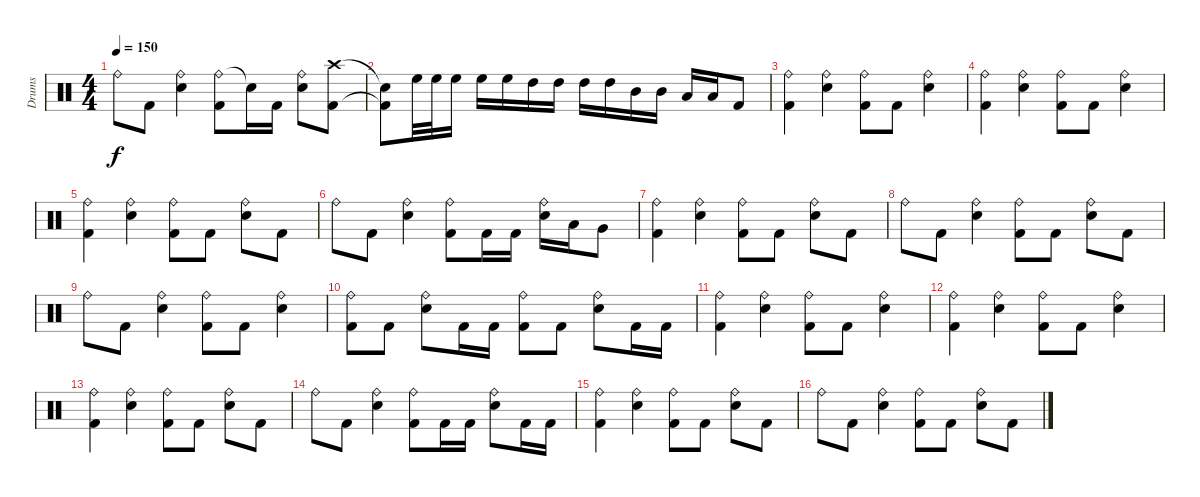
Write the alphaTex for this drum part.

\track ("Drums" "Drums") {instrument percussion}
\staff {score}
\articulation defaults
\ts (4 4)
\tempo 150
\clef neutral
\ks c "Ride (bell)".8{dy f} "Kick (hit) 2".8
("Ride (bell)" "Electric Snare (hit)").4 ("Ride (bell)" "Kick (hit) 2").8 "Snare (hit)"{t}.16 "Kick (hit) 2".16 ("Ride (bell)" "Electric Snare (hit)").8 ("Crash high (hit)" "Kick (hit) 2").8 |
("Snare (hit)"{t} "Kick (hit) 2"{t}).8 "High Floor Tom (hit)".32 "High Floor Tom (hit)".32 "High Floor Tom (hit)".16 "High Floor Tom (hit)".16 "High Floor Tom (hit)".16 "High Tom (hit)".16 "High Tom (hit)".16 "High Tom (hit)".16 "High Tom (hit)".16 "Mid Tom (hit)".16 "Mid Tom (hit)".16 "Low Tom (hit)".16 "Low Tom (hit)".16 "Kick (hit) 2".8 |
("Ride (bell)" "Kick (hit) 2").4 ("Ride (bell)" "Electric Snare (hit)").4 ("Ride (bell)" "Kick (hit) 2").8 "Kick (hit) 2".8 ("Ride (bell)" "Electric Snare (hit)").4 |
("Ride (bell)" "Kick (hit) 2").4 ("Ride (bell)" "Electric Snare (hit)").4 ("Ride (bell)" "Kick (hit) 2").8 "Kick (hit) 2".8 ("Ride (bell)" "Electric Snare (hit)").4 |
("Ride (bell)" "Kick (hit) 2").4 ("Ride (bell)" "Electric Snare (hit)").4 ("Ride (bell)" "Kick (hit) 2").8 "Kick (hit) 2".8 ("Ride (bell)" "Electric Snare (hit)").8 "Kick (hit) 2".8 |
"Ride (bell)".8 "Kick (hit) 2".8 ("Ride (bell)" "Electric Snare (hit)").4 ("Ride (bell)" "Kick (hit) 2").8 "Kick (hit) 2".16 "Kick (hit) 2".16 ("Ride (bell)" "Electric Snare (hit)").16 "Low Tom (hit)".16 "Very Low Tom (hit)".8 |
("Ride (bell)" "Kick (hit) 2").4 ("Ride (bell)" "Electric Snare (hit)").4 ("Ride (bell)" "Kick (hit) 2").8 "Kick (hit) 2".8 ("Ride (bell)" "Electric Snare (hit)").8 "Kick (hit) 2".8 |
"Ride (bell)".8 "Kick (hit) 2".8 ("Ride (bell)" "Electric Snare (hit)").4 ("Ride (bell)" "Kick (hit) 2").8 "Kick (hit) 2".8 ("Ride (bell)" "Electric Snare (hit)").8 "Kick (hit) 2".8 |
"Ride (bell)".8 "Kick (hit) 2".8 ("Ride (bell)" "Electric Snare (hit)").4 ("Ride (bell)" "Kick (hit) 2").8 "Kick (hit) 2".8 ("Ride (bell)" "Electric Snare (hit)").4 |
("Ride (bell)" "Kick (hit) 2").8 "Kick (hit) 2".8 ("Ride (bell)" "Electric Snare (hit)").8 "Kick (hit) 2".16 "Kick (hit) 2".16 ("Ride (bell)" "Kick (hit) 2").8 "Kick (hit) 2".8 ("Ride (bell)" "Electric Snare (hit)").8 "Kick (hit) 2".16 "Kick (hit) 2".16 |
("Ride (bell)" "Kick (hit) 2").4 ("Ride (bell)" "Electric Snare (hit)").4 ("Ride (bell)" "Kick (hit) 2").8 "Kick (hit) 2".8 ("Ride (bell)" "Electric Snare (hit)").4 |
("Ride (bell)" "Kick (hit) 2").4 ("Ride (bell)" "Electric Snare (hit)").4 ("Ride (bell)" "Kick (hit) 2").8 "Kick (hit) 2".8 ("Ride (bell)" "Electric Snare (hit)").4 |
("Ride (bell)" "Kick (hit) 2").4 ("Ride (bell)" "Electric Snare (hit)").4 ("Ride (bell)" "Kick (hit) 2").8 "Kick (hit) 2".8 ("Ride (bell)" "Electric Snare (hit)").8 "Kick (hit) 2".8 |
"Ride (bell)".8 "Kick (hit) 2".8 ("Ride (bell)" "Electric Snare (hit)").4 ("Ride (bell)" "Kick (hit) 2").8 "Kick (hit) 2".16 "Kick (hit) 2".16 ("Ride (bell)" "Electric Snare (hit)").8 "Kick (hit) 2".16 "Kick (hit) 2".16 |
("Ride (bell)" "Kick (hit) 2").4 ("Ride (bell)" "Electric Snare (hit)").4 ("Ride (bell)" "Kick (hit) 2").8 "Kick (hit) 2".8 ("Ride (bell)" "Electric Snare (hit)").8 "Kick (hit) 2".8 |
"Ride (bell)".8 "Kick (hit) 2".8 ("Ride (bell)" "Electric Snare (hit)").4 ("Ride (bell)" "Kick (hit) 2").8 "Kick (hit) 2".8 ("Ride (bell)" "Electric Snare (hit)").8 "Kick (hit) 2".8
